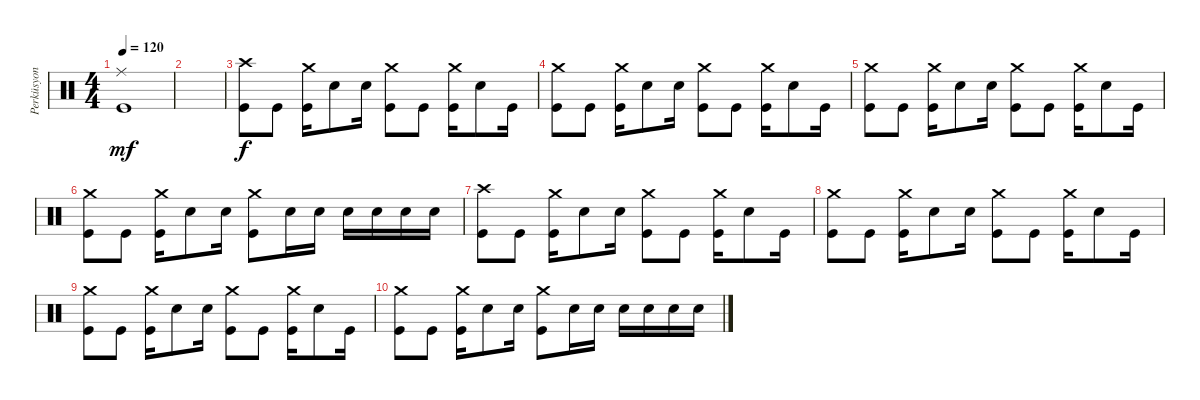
\track ("Perküsyon" "Perküsyon") {instrument percussion}
\staff {score}
\articulation defaults
\ts (4 4)
\tempo 120
\clef neutral
\ks c
("Kick (hit)" "Ride (middle)").1{dy mf} |
|
("Kick (hit)" "Crash high (hit)").8{dy f} "Kick (hit)".8 ("Kick (hit)" "Crash medium (hit)").16 "Snare (hit) 2".8 "Snare (hit) 2".16 ("Kick (hit)" "Crash medium (hit)").8 "Kick (hit)".8 ("Kick (hit)" "Crash medium (hit)").16 "Snare (hit) 2".8 "Kick (hit)".16 |
("Kick (hit)" "Crash medium (hit)").8 "Kick (hit)".8 ("Kick (hit)" "Crash medium (hit)").16 "Snare (hit) 2".8 "Snare (hit) 2".16 ("Kick (hit)" "Crash medium (hit)").8 "Kick (hit)".8 ("Kick (hit)" "Crash medium (hit)").16 "Snare (hit) 2".8 "Kick (hit)".16 |
("Kick (hit)" "Crash medium (hit)").8 "Kick (hit)".8 ("Kick (hit)" "Crash medium (hit)").16 "Snare (hit) 2".8 "Snare (hit) 2".16 ("Kick (hit)" "Crash medium (hit)").8 "Kick (hit)".8 ("Kick (hit)" "Crash medium (hit)").16 "Snare (hit) 2".8 "Kick (hit)".16 |
("Kick (hit)" "Crash medium (hit)").8 "Kick (hit)".8 ("Kick (hit)" "Crash medium (hit)").16 "Snare (hit) 2".8 "Snare (hit) 2".16 ("Kick (hit)" "Crash medium (hit)").8 "Snare (hit) 2".16 "Snare (hit) 2".16 "Snare (hit) 2".16 "Snare (hit) 2".16 "Snare (hit) 2".16 "Snare (hit) 2".16 |
("Kick (hit)" "Crash high (hit)").8 "Kick (hit)".8 ("Kick (hit)" "Crash medium (hit)").16 "Snare (hit) 2".8 "Snare (hit) 2".16 ("Kick (hit)" "Crash medium (hit)").8 "Kick (hit)".8 ("Kick (hit)" "Crash medium (hit)").16 "Snare (hit) 2".8 "Kick (hit)".16 |
("Kick (hit)" "Crash medium (hit)").8 "Kick (hit)".8 ("Kick (hit)" "Crash medium (hit)").16 "Snare (hit) 2".8 "Snare (hit) 2".16 ("Kick (hit)" "Crash medium (hit)").8 "Kick (hit)".8 ("Kick (hit)" "Crash medium (hit)").16 "Snare (hit) 2".8 "Kick (hit)".16 |
("Kick (hit)" "Crash medium (hit)").8 "Kick (hit)".8 ("Kick (hit)" "Crash medium (hit)").16 "Snare (hit) 2".8 "Snare (hit) 2".16 ("Kick (hit)" "Crash medium (hit)").8 "Kick (hit)".8 ("Kick (hit)" "Crash medium (hit)").16 "Snare (hit) 2".8 "Kick (hit)".16 |
("Kick (hit)" "Crash medium (hit)").8 "Kick (hit)".8 ("Kick (hit)" "Crash medium (hit)").16 "Snare (hit) 2".8 "Snare (hit) 2".16 ("Kick (hit)" "Crash medium (hit)").8 "Snare (hit) 2".16 "Snare (hit) 2".16 "Snare (hit) 2".16 "Snare (hit) 2".16 "Snare (hit) 2".16 "Snare (hit) 2".16
